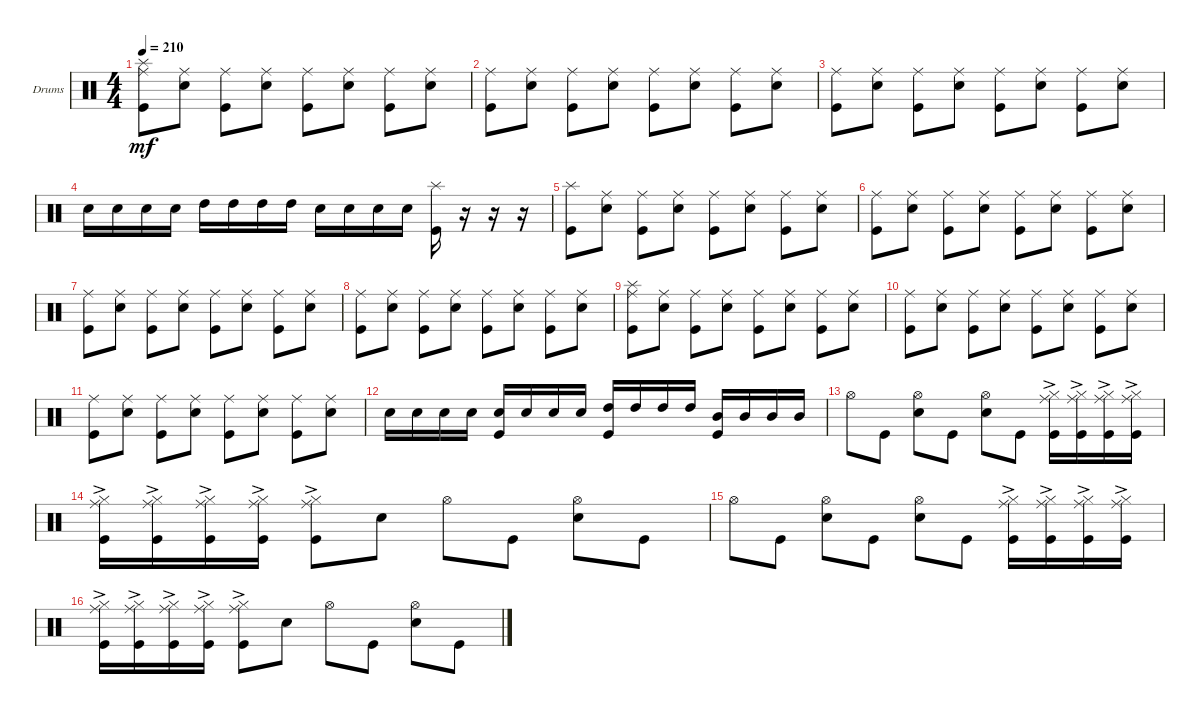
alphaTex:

\bracketExtendMode groupsimilarinstruments
\firstSystemTrackNameOrientation horizontal
\otherSystemsTrackNameOrientation horizontal
\track ("Drumkit" "Drums") {instrument percussion}
\staff {score}
\articulation defaults
\ts (4 4)
\tempo 210
\clef neutral
\ks c
("Kick (hit)" "Ride (middle)" "Splash (hit)").8{dy mf} ("Snare (hit) 2" "Ride (middle)").8 ("Kick (hit)" "Ride (middle)").8 ("Snare (hit) 2" "Ride (middle)").8 ("Kick (hit)" "Ride (middle)").8 ("Snare (hit) 2" "Ride (middle)").8 ("Kick (hit)" "Ride (middle)").8 ("Snare (hit) 2" "Ride (middle)").8 |
("Kick (hit)" "Ride (middle)").8 ("Snare (hit) 2" "Ride (middle)").8 ("Kick (hit)" "Ride (middle)").8 ("Snare (hit) 2" "Ride (middle)").8 ("Kick (hit)" "Ride (middle)").8 ("Snare (hit) 2" "Ride (middle)").8 ("Kick (hit)" "Ride (middle)").8 ("Snare (hit) 2" "Ride (middle)").8 |
("Kick (hit)" "Ride (middle)").8 ("Snare (hit) 2" "Ride (middle)").8 ("Kick (hit)" "Ride (middle)").8 ("Snare (hit) 2" "Ride (middle)").8 ("Kick (hit)" "Ride (middle)").8 ("Snare (hit) 2" "Ride (middle)").8 ("Kick (hit)" "Ride (middle)").8 ("Snare (hit) 2" "Ride (middle)").8 |
"Snare (hit) 2".16 "Snare (hit) 2".16 "Snare (hit) 2".16 "Snare (hit) 2".16 "High Tom (hit)".16 "High Tom (hit)".16 "High Tom (hit)".16 "High Tom (hit)".16 "Snare (hit) 2".16 "Snare (hit) 2".16 "Snare (hit) 2".16 "Snare (hit) 2".16 ("Kick (hit)" "Splash (hit)").16 r.16 r.16 r.16 |
("Kick (hit)" "Splash (hit)").8 ("Snare (hit) 2" "Ride (middle)").8 ("Kick (hit)" "Ride (middle)").8 ("Snare (hit) 2" "Ride (middle)").8 ("Kick (hit)" "Ride (middle)").8 ("Snare (hit) 2" "Ride (middle)").8 ("Kick (hit)" "Ride (middle)").8 ("Snare (hit) 2" "Ride (middle)").8 |
("Kick (hit)" "Ride (middle)").8 ("Snare (hit) 2" "Ride (middle)").8 ("Kick (hit)" "Ride (middle)").8 ("Snare (hit) 2" "Ride (middle)").8 ("Kick (hit)" "Ride (middle)").8 ("Snare (hit) 2" "Ride (middle)").8 ("Kick (hit)" "Ride (middle)").8 ("Snare (hit) 2" "Ride (middle)").8 |
("Kick (hit)" "Ride (middle)").8 ("Snare (hit) 2" "Ride (middle)").8 ("Kick (hit)" "Ride (middle)").8 ("Snare (hit) 2" "Ride (middle)").8 ("Kick (hit)" "Ride (middle)").8 ("Snare (hit) 2" "Ride (middle)").8 ("Kick (hit)" "Ride (middle)").8 ("Snare (hit) 2" "Ride (middle)").8 |
("Kick (hit)" "Ride (middle)").8 ("Snare (hit) 2" "Ride (middle)").8 ("Kick (hit)" "Ride (middle)").8 ("Snare (hit) 2" "Ride (middle)").8 ("Kick (hit)" "Ride (middle)").8 ("Snare (hit) 2" "Ride (middle)").8 ("Kick (hit)" "Ride (middle)").8 ("Snare (hit) 2" "Ride (middle)").8 |
("Kick (hit)" "Ride (middle)" "Splash (hit)").8 ("Snare (hit) 2" "Ride (middle)").8 ("Kick (hit)" "Ride (middle)").8 ("Snare (hit) 2" "Ride (middle)").8 ("Kick (hit)" "Ride (middle)").8 ("Snare (hit) 2" "Ride (middle)").8 ("Kick (hit)" "Ride (middle)").8 ("Snare (hit) 2" "Ride (middle)").8 |
("Kick (hit)" "Ride (middle)").8 ("Snare (hit) 2" "Ride (middle)").8 ("Kick (hit)" "Ride (middle)").8 ("Snare (hit) 2" "Ride (middle)").8 ("Kick (hit)" "Ride (middle)").8 ("Snare (hit) 2" "Ride (middle)").8 ("Kick (hit)" "Ride (middle)").8 ("Snare (hit) 2" "Ride (middle)").8 |
("Kick (hit)" "Ride (middle)").8 ("Snare (hit) 2" "Ride (middle)").8 ("Kick (hit)" "Ride (middle)").8 ("Snare (hit) 2" "Ride (middle)").8 ("Kick (hit)" "Ride (middle)").8 ("Snare (hit) 2" "Ride (middle)").8 ("Kick (hit)" "Ride (middle)").8 ("Snare (hit) 2" "Ride (middle)").8 |
"Snare (hit) 2".16 "Snare (hit) 2".16 "Snare (hit) 2".16 "Snare (hit) 2".16 ("Kick (hit)" "Snare (hit) 2").16 "Snare (hit) 2".16 "Snare (hit) 2".16 "Snare (hit) 2".16 ("Kick (hit)" "High Tom (hit)").16 "High Tom (hit)".16 "High Tom (hit)".16 "High Tom (hit)".16 ("Kick (hit)" "Mid Tom (hit)").16 "Mid Tom (hit)".16 "Mid Tom (hit)".16 "Mid Tom (hit)".16 |
"Hi-Hat (open)".8 "Kick (hit)".8 ("Snare (hit) 2" "Hi-Hat (open)").8 "Kick (hit)".8 ("Snare (hit) 2" "Hi-Hat (open)").8 "Kick (hit)".8 ("Kick (hit)" "Hi-Hat (closed)"{ac} "Ride (middle)").16 ("Kick (hit)" "Hi-Hat (closed)"{ac} "Ride (middle)").16 ("Kick (hit)" "Hi-Hat (closed)"{ac} "Ride (middle)").16 ("Kick (hit)" "Hi-Hat (closed)"{ac} "Ride (middle)").16 |
("Kick (hit)" "Hi-Hat (closed)"{ac} "Ride (middle)").16 ("Kick (hit)" "Hi-Hat (closed)"{ac} "Ride (middle)").16 ("Kick (hit)" "Hi-Hat (closed)"{ac} "Ride (middle)").16 ("Kick (hit)" "Hi-Hat (closed)"{ac} "Ride (middle)").16 ("Kick (hit)" "Hi-Hat (closed)"{ac} "Ride (middle)").8 "Snare (hit) 2".8 "Hi-Hat (open)".8 "Kick (hit)".8 ("Snare (hit) 2" "Hi-Hat (open)").8 "Kick (hit)".8 |
"Hi-Hat (open)".8 "Kick (hit)".8 ("Snare (hit) 2" "Hi-Hat (open)").8 "Kick (hit)".8 ("Snare (hit) 2" "Hi-Hat (open)").8 "Kick (hit)".8 ("Kick (hit)" "Hi-Hat (closed)"{ac} "Ride (middle)").16 ("Kick (hit)" "Hi-Hat (closed)"{ac} "Ride (middle)").16 ("Kick (hit)" "Hi-Hat (closed)"{ac} "Ride (middle)").16 ("Kick (hit)" "Hi-Hat (closed)"{ac} "Ride (middle)").16 |
("Kick (hit)" "Hi-Hat (closed)"{ac} "Ride (middle)").16 ("Kick (hit)" "Hi-Hat (closed)"{ac} "Ride (middle)").16 ("Kick (hit)" "Hi-Hat (closed)"{ac} "Ride (middle)").16 ("Kick (hit)" "Hi-Hat (closed)"{ac} "Ride (middle)").16 ("Kick (hit)" "Hi-Hat (closed)"{ac} "Ride (middle)").8 "Snare (hit) 2".8 "Hi-Hat (open)".8 "Kick (hit)".8 ("Snare (hit) 2" "Hi-Hat (open)").8 "Kick (hit)".8
